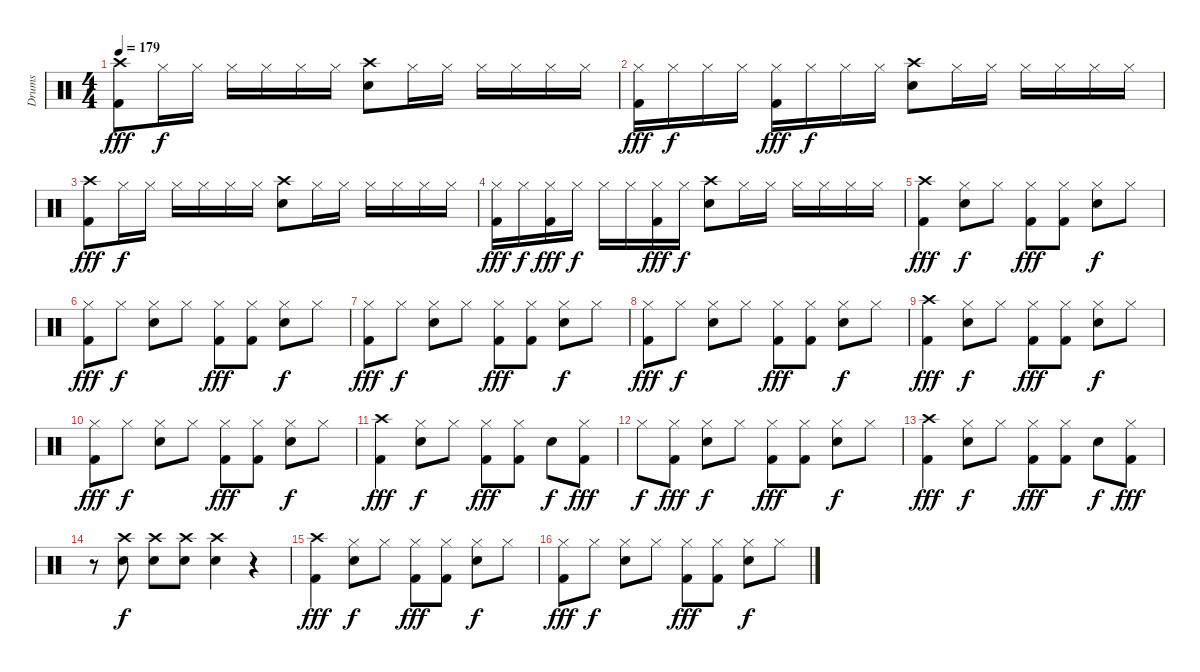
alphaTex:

\track ("Drums" "Drums") {instrument percussion}
\staff {score}
\articulation defaults
\ts (4 4)
\tempo 179
\clef neutral
\ks c
("Crash high (hit)" "Kick (hit) 2").8{dy fff} "Hi-Hat (closed)".16{dy f} "Hi-Hat (closed)".16 "Hi-Hat (closed)".16 "Hi-Hat (closed)".16 "Hi-Hat (closed)".16 "Hi-Hat (closed)".16 ("Crash high (hit)" "Electric Snare (hit)").8 "Hi-Hat (closed)".16 "Hi-Hat (closed)".16 "Hi-Hat (closed)".16 "Hi-Hat (closed)".16 "Hi-Hat (closed)".16 "Hi-Hat (closed)".16 |
("Hi-Hat (closed)" "Kick (hit) 2").16{dy fff} "Hi-Hat (closed)".16{dy f} "Hi-Hat (closed)".16 "Hi-Hat (closed)".16 ("Hi-Hat (closed)" "Kick (hit) 2").16{dy fff} "Hi-Hat (closed)".16{dy f} "Hi-Hat (closed)".16 "Hi-Hat (closed)".16 ("Crash high (hit)" "Electric Snare (hit)").8 "Hi-Hat (closed)".16 "Hi-Hat (closed)".16 "Hi-Hat (closed)".16 "Hi-Hat (closed)".16 "Hi-Hat (closed)".16 "Hi-Hat (closed)".16 |
("Crash high (hit)" "Kick (hit) 2").8{dy fff} "Hi-Hat (closed)".16{dy f} "Hi-Hat (closed)".16 "Hi-Hat (closed)".16 "Hi-Hat (closed)".16 "Hi-Hat (closed)".16 "Hi-Hat (closed)".16 ("Crash high (hit)" "Electric Snare (hit)").8 "Hi-Hat (closed)".16 "Hi-Hat (closed)".16 "Hi-Hat (closed)".16 "Hi-Hat (closed)".16 "Hi-Hat (closed)".16 "Hi-Hat (closed)".16 |
("Hi-Hat (closed)" "Kick (hit) 2").16{dy fff} "Hi-Hat (closed)".16{dy f} ("Hi-Hat (closed)" "Kick (hit) 2").16{dy fff} "Hi-Hat (closed)".16{dy f} "Hi-Hat (closed)".16 "Hi-Hat (closed)".16 ("Hi-Hat (closed)" "Kick (hit) 2").16{dy fff} "Hi-Hat (closed)".16{dy f} ("Crash high (hit)" "Electric Snare (hit)").8 "Hi-Hat (closed)".16 "Hi-Hat (closed)".16 "Hi-Hat (closed)".16 "Hi-Hat (closed)".16 "Hi-Hat (closed)".16 "Hi-Hat (closed)".16 |
("Crash high (hit)" "Kick (hit) 2").4{dy fff} ("Hi-Hat (closed)" "Electric Snare (hit)").8{dy f} "Hi-Hat (closed)".8 ("Hi-Hat (closed)" "Kick (hit) 2").8{dy fff} ("Hi-Hat (closed)" "Kick (hit) 2").8 ("Hi-Hat (closed)" "Electric Snare (hit)").8{dy f} "Hi-Hat (closed)".8 |
("Hi-Hat (closed)" "Kick (hit) 2").8{dy fff} "Hi-Hat (closed)".8{dy f} ("Hi-Hat (closed)" "Electric Snare (hit)").8 "Hi-Hat (closed)".8 ("Hi-Hat (closed)" "Kick (hit) 2").8{dy fff} ("Hi-Hat (closed)" "Kick (hit) 2").8 ("Hi-Hat (closed)" "Electric Snare (hit)").8{dy f} "Hi-Hat (closed)".8 |
("Hi-Hat (closed)" "Kick (hit) 2").8{dy fff} "Hi-Hat (closed)".8{dy f} ("Hi-Hat (closed)" "Electric Snare (hit)").8 "Hi-Hat (closed)".8 ("Hi-Hat (closed)" "Kick (hit) 2").8{dy fff} ("Hi-Hat (closed)" "Kick (hit) 2").8 ("Hi-Hat (closed)" "Electric Snare (hit)").8{dy f} "Hi-Hat (closed)".8 |
("Hi-Hat (closed)" "Kick (hit) 2").8{dy fff} "Hi-Hat (closed)".8{dy f} ("Hi-Hat (closed)" "Electric Snare (hit)").8 "Hi-Hat (closed)".8 ("Hi-Hat (closed)" "Kick (hit) 2").8{dy fff} ("Hi-Hat (closed)" "Kick (hit) 2").8 ("Hi-Hat (closed)" "Electric Snare (hit)").8{dy f} "Hi-Hat (closed)".8 |
("Crash high (hit)" "Kick (hit) 2").4{dy fff} ("Hi-Hat (closed)" "Electric Snare (hit)").8{dy f} "Hi-Hat (closed)".8 ("Hi-Hat (closed)" "Kick (hit) 2").8{dy fff} ("Hi-Hat (closed)" "Kick (hit) 2").8 ("Hi-Hat (closed)" "Electric Snare (hit)").8{dy f} "Hi-Hat (closed)".8 |
("Hi-Hat (closed)" "Kick (hit) 2").8{dy fff} "Hi-Hat (closed)".8{dy f} ("Hi-Hat (closed)" "Electric Snare (hit)").8 "Hi-Hat (closed)".8 ("Hi-Hat (closed)" "Kick (hit) 2").8{dy fff} ("Hi-Hat (closed)" "Kick (hit) 2").8 ("Hi-Hat (closed)" "Electric Snare (hit)").8{dy f} "Hi-Hat (closed)".8 |
("Crash high (hit)" "Kick (hit) 2").4{dy fff} ("Hi-Hat (closed)" "Electric Snare (hit)").8{dy f} "Hi-Hat (closed)".8 ("Hi-Hat (closed)" "Kick (hit) 2").8{dy fff} ("Hi-Hat (closed)" "Kick (hit) 2").8 "Electric Snare (hit)".8{dy f} ("Hi-Hat (closed)" "Kick (hit) 2").8{dy fff} |
"Hi-Hat (closed)".8{dy f} ("Hi-Hat (closed)" "Kick (hit) 2").8{dy fff} ("Hi-Hat (closed)" "Electric Snare (hit)").8{dy f} "Hi-Hat (closed)".8 ("Hi-Hat (closed)" "Kick (hit) 2").8{dy fff} ("Hi-Hat (closed)" "Kick (hit) 2").8 ("Hi-Hat (closed)" "Electric Snare (hit)").8{dy f} "Hi-Hat (closed)".8 |
("Crash high (hit)" "Kick (hit) 2").4{dy fff} ("Hi-Hat (closed)" "Electric Snare (hit)").8{dy f} "Hi-Hat (closed)".8 ("Hi-Hat (closed)" "Kick (hit) 2").8{dy fff} ("Hi-Hat (closed)" "Kick (hit) 2").8 "Electric Snare (hit)".8{dy f} ("Hi-Hat (closed)" "Kick (hit) 2").8{dy fff} |
r.8 ("Crash high (hit)" "Electric Snare (hit)").8{dy f} ("Crash high (hit)" "Electric Snare (hit)").8 ("Crash high (hit)" "Electric Snare (hit)").8 ("Crash high (hit)" "Electric Snare (hit)").4 r.4 |
("Crash high (hit)" "Kick (hit) 2").4{dy fff} ("Hi-Hat (closed)" "Electric Snare (hit)").8{dy f} "Hi-Hat (closed)".8 ("Hi-Hat (closed)" "Kick (hit) 2").8{dy fff} ("Hi-Hat (closed)" "Kick (hit) 2").8 ("Hi-Hat (closed)" "Electric Snare (hit)").8{dy f} "Hi-Hat (closed)".8 |
("Hi-Hat (closed)" "Kick (hit) 2").8{dy fff} "Hi-Hat (closed)".8{dy f} ("Hi-Hat (closed)" "Electric Snare (hit)").8 "Hi-Hat (closed)".8 ("Hi-Hat (closed)" "Kick (hit) 2").8{dy fff} ("Hi-Hat (closed)" "Kick (hit) 2").8 ("Hi-Hat (closed)" "Electric Snare (hit)").8{dy f} "Hi-Hat (closed)".8
